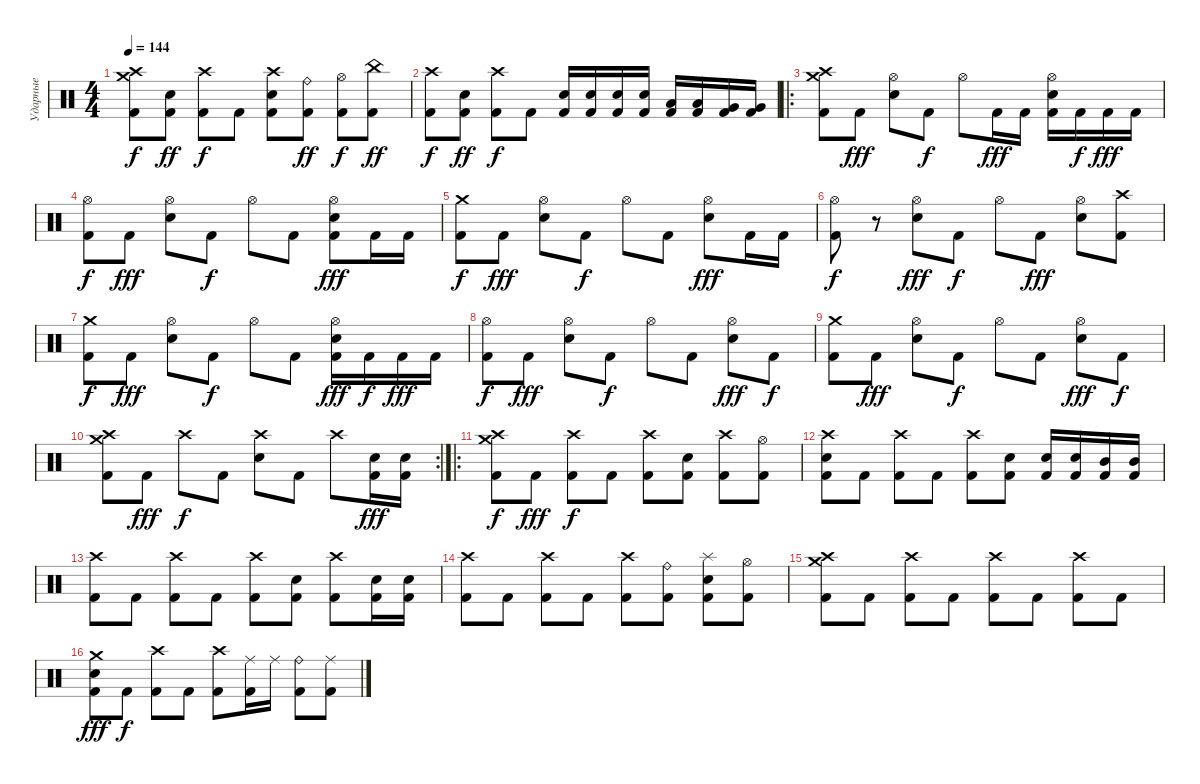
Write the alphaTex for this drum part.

\track ("Ударные" "Ударные") {instrument percussion}
\staff {score}
\articulation defaults
\ts (4 4)
\tempo 144
\clef neutral
\ks c
("Crash high (hit)" "Crash medium (hit)" "Kick (hit) 2").8{dy f} ("Electric Snare (hit)" "Kick (hit) 2").8{dy ff} ("Crash high (hit)" "Kick (hit) 2").8{dy f} "Kick (hit) 2".8 ("Crash high (hit)" "Electric Snare (hit)" "Kick (hit) 2").8 ("Ride (bell)" "Kick (hit) 2").8{dy ff} ("Hi-Hat (open)" "Kick (hit) 2").8{dy f} ("China (hit)" "Kick (hit) 2").8{dy ff} |
("Crash high (hit)" "Kick (hit) 2").8{dy f} ("Electric Snare (hit)" "Kick (hit) 2").8{dy ff} ("Crash high (hit)" "Kick (hit) 2").8{dy f} "Kick (hit) 2".8 ("Electric Snare (hit)" "Kick (hit) 2").16 ("Electric Snare (hit)" "Kick (hit) 2").16 ("Electric Snare (hit)" "Kick (hit) 2").16 ("Electric Snare (hit)" "Kick (hit) 2").16 ("Low Tom (hit)" "Kick (hit) 2").16 ("Low Tom (hit)" "Kick (hit) 2").16 ("Very Low Tom (hit)" "Kick (hit) 2").16 ("Very Low Tom (hit)" "Kick (hit) 2").16 |
\ro
("Crash high (hit)" "Crash medium (hit)" "Kick (hit) 2").8 "Kick (hit) 2".8{dy fff} ("Hi-Hat (open)" "Electric Snare (hit)").8 "Kick (hit) 2".8{dy f} "Hi-Hat (open)".8 "Kick (hit) 2".16{dy fff} "Kick (hit) 2".16 ("Hi-Hat (open)" "Electric Snare (hit)" "Kick (hit) 2").16 "Kick (hit) 2".16{dy f} "Kick (hit) 2".16{dy fff} "Kick (hit) 2".16 |
("Hi-Hat (open)" "Kick (hit) 2").8{dy f} "Kick (hit) 2".8{dy fff} ("Hi-Hat (open)" "Electric Snare (hit)").8 "Kick (hit) 2".8{dy f} "Hi-Hat (open)".8 "Kick (hit) 2".8 ("Hi-Hat (open)" "Electric Snare (hit)" "Kick (hit) 2").8{dy fff} "Kick (hit) 2".16 "Kick (hit) 2".16 |
("Crash medium (hit)" "Kick (hit) 2").8{dy f} "Kick (hit) 2".8{dy fff} ("Hi-Hat (open)" "Electric Snare (hit)").8 "Kick (hit) 2".8{dy f} "Hi-Hat (open)".8 "Kick (hit) 2".8 ("Hi-Hat (open)" "Electric Snare (hit)").8{dy fff} "Kick (hit) 2".16 "Kick (hit) 2".16 |
("Hi-Hat (open)" "Kick (hit) 2").8{dy f} r.8 ("Hi-Hat (open)" "Electric Snare (hit)").8{dy fff} "Kick (hit) 2".8{dy f} "Hi-Hat (open)".8 "Kick (hit) 2".8{dy fff} ("Hi-Hat (open)" "Electric Snare (hit)").8 ("Crash high (hit)" "Kick (hit) 2").8 |
("Crash medium (hit)" "Kick (hit) 2").8{dy f} "Kick (hit) 2".8{dy fff} ("Hi-Hat (open)" "Electric Snare (hit)").8 "Kick (hit) 2".8{dy f} "Hi-Hat (open)".8 "Kick (hit) 2".8 ("Hi-Hat (open)" "Electric Snare (hit)" "Kick (hit) 2").16{dy fff} "Kick (hit) 2".16{dy f} "Kick (hit) 2".16{dy fff} "Kick (hit) 2".16 |
("Hi-Hat (open)" "Kick (hit) 2").8{dy f} "Kick (hit) 2".8{dy fff} ("Hi-Hat (open)" "Electric Snare (hit)").8 "Kick (hit) 2".8{dy f} "Hi-Hat (open)".8 "Kick (hit) 2".8 ("Hi-Hat (open)" "Electric Snare (hit)").8{dy fff} "Kick (hit) 2".8{dy f} |
("Crash medium (hit)" "Kick (hit) 2").8 "Kick (hit) 2".8{dy fff} ("Hi-Hat (open)" "Electric Snare (hit)").8 "Kick (hit) 2".8{dy f} "Hi-Hat (open)".8 "Kick (hit) 2".8 ("Hi-Hat (open)" "Electric Snare (hit)").8{dy fff} "Kick (hit) 2".8{dy f} |
\rc 2
("Crash high (hit)" "Crash medium (hit)" "Kick (hit) 2").8 "Kick (hit) 2".8{dy fff} "Crash high (hit)".8{dy f} "Kick (hit) 2".8 ("Crash high (hit)" "Electric Snare (hit)").8 "Kick (hit) 2".8 "Crash high (hit)".8 ("Electric Snare (hit)" "Kick (hit) 2").16{dy fff} ("Electric Snare (hit)" "Kick (hit) 2").16 |
\ro
("Crash high (hit)" "Crash medium (hit)" "Kick (hit) 2").8{dy f} "Kick (hit) 2".8{dy fff} ("Crash high (hit)" "Kick (hit) 2").8{dy f} "Kick (hit) 2".8 ("Crash high (hit)" "Kick (hit) 2").8 ("Electric Snare (hit)" "Kick (hit) 2").8 ("Crash high (hit)" "Kick (hit) 2").8 ("Hi-Hat (open)" "Kick (hit) 2").8 |
("Crash high (hit)" "Electric Snare (hit)" "Kick (hit) 2").8 "Kick (hit) 2".8 ("Crash high (hit)" "Kick (hit) 2").8 "Kick (hit) 2".8 ("Crash high (hit)" "Kick (hit) 2").8 ("Electric Snare (hit)" "Kick (hit) 2").8 ("Electric Snare (hit)" "Kick (hit) 2").16 ("Electric Snare (hit)" "Kick (hit) 2").16 ("Mid Tom (hit)" "Kick (hit) 2").16 ("Mid Tom (hit)" "Kick (hit) 2").16 |
("Crash high (hit)" "Kick (hit) 2").8 "Kick (hit) 2".8 ("Crash high (hit)" "Kick (hit) 2").8 "Kick (hit) 2".8 ("Crash high (hit)" "Kick (hit) 2").8 ("Electric Snare (hit)" "Kick (hit) 2").8 ("Crash high (hit)" "Kick (hit) 2").8 ("Electric Snare (hit)" "Kick (hit) 2").16 ("Electric Snare (hit)" "Kick (hit) 2").16 |
("Crash high (hit)" "Kick (hit) 2").8 "Kick (hit) 2".8 ("Crash high (hit)" "Kick (hit) 2").8 "Kick (hit) 2".8 ("Crash high (hit)" "Kick (hit) 2").8 ("Ride (bell)" "Kick (hit) 2").8 ("Splash (hit)" "Electric Snare (hit)" "Kick (hit) 2").8 ("Hi-Hat (open)" "Kick (hit) 2").8 |
("Crash high (hit)" "Crash medium (hit)" "Kick (hit) 2").8 "Kick (hit) 2".8 ("Crash high (hit)" "Kick (hit) 2").8 "Kick (hit) 2".8 ("Crash high (hit)" "Kick (hit) 2").8 "Kick (hit) 2".8 ("Crash high (hit)" "Kick (hit) 2").8 "Kick (hit) 2".8 |
("Crash medium (hit)" "Electric Snare (hit)" "Kick (hit) 2").8{dy fff} "Kick (hit) 2".8{dy f} ("Crash high (hit)" "Kick (hit) 2").8 "Kick (hit) 2".8 ("Crash high (hit)" "Kick (hit) 2").8 ("Ride (middle)" "Kick (hit) 2").16 "Ride (middle)".16 ("Ride (bell)" "Kick (hit) 2").8 ("Ride (middle)" "Kick (hit) 2").8
